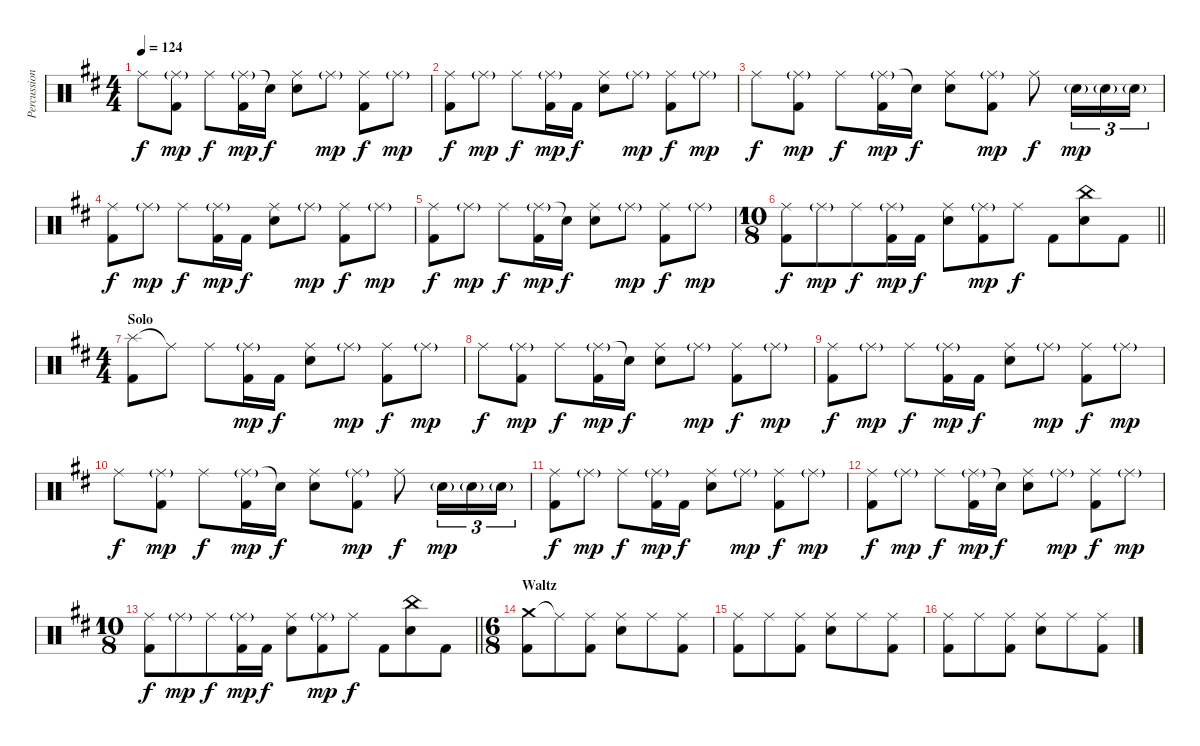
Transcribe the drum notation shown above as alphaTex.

\track ("Percussion" "Percussion") {instrument percussion}
\staff {score}
\articulation defaults
\ts (4 4)
\tempo 124
\clef neutral
\ks bminor "Ride (middle)".8{dy f}
("Ride (middle)"{g} "Kick (hit) 2").8{dy mp} "Ride (middle)".8{dy f} ("Ride (middle)"{g} "Kick (hit) 2").16{dy mp} "Snare (hit)"{t}.16{dy f} ("Ride (middle)" "Electric Snare (hit)").8 "Ride (middle)"{g}.8{dy mp} ("Ride (middle)" "Kick (hit) 2").8{dy f} "Ride (middle)"{g}.8{dy mp} |
("Ride (middle)" "Kick (hit) 2").8{dy f} "Ride (middle)"{g}.8{dy mp} "Ride (middle)".8{dy f} ("Ride (middle)"{g} "Kick (hit) 2").16{dy mp} "Kick (hit) 2".16{dy f} ("Ride (middle)" "Electric Snare (hit)").8 "Ride (middle)"{g}.8{dy mp} ("Ride (middle)" "Kick (hit) 2").8{dy f} "Ride (middle)"{g}.8{dy mp} |
"Ride (middle)".8{dy f} ("Ride (middle)"{g} "Kick (hit) 2").8{dy mp} "Ride (middle)".8{dy f} ("Ride (middle)"{g} "Kick (hit) 2").16{dy mp} "Snare (hit)"{t}.16{dy f} ("Ride (middle)" "Electric Snare (hit)").8 ("Ride (middle)"{g} "Kick (hit) 2").8{dy mp} "Ride (middle)".8{dy f} "Electric Snare (hit)"{g}.16{tu (3 2) dy mp} "Electric Snare (hit)"{g}.16{tu (3 2)} "Electric Snare (hit)"{g}.16{tu (3 2)} |
("Ride (middle)" "Kick (hit) 2").8{dy f} "Ride (middle)"{g}.8{dy mp} "Ride (middle)".8{dy f} ("Ride (middle)"{g} "Kick (hit) 2").16{dy mp} "Kick (hit) 2".16{dy f} ("Ride (middle)" "Electric Snare (hit)").8 "Ride (middle)"{g}.8{dy mp} ("Ride (middle)" "Kick (hit) 2").8{dy f} "Ride (middle)"{g}.8{dy mp} |
("Ride (middle)" "Kick (hit) 2").8{dy f} "Ride (middle)"{g}.8{dy mp} "Ride (middle)".8{dy f} ("Ride (middle)"{g} "Kick (hit) 2").16{dy mp} "Snare (hit)"{t}.16{dy f} ("Ride (middle)" "Electric Snare (hit)").8 "Ride (middle)"{g}.8{dy mp} ("Ride (middle)" "Kick (hit) 2").8{dy f} "Ride (middle)"{g}.8{dy mp} |
\ts (10 8)
\barLineRight lightlight
("Ride (middle)" "Kick (hit) 2").8{dy f} "Ride (middle)"{g}.8{dy mp} "Ride (middle)".8{dy f} ("Ride (middle)"{g} "Kick (hit) 2").16{dy mp} "Kick (hit) 2".16{dy f} ("Ride (middle)" "Electric Snare (hit)").8 ("Ride (middle)"{g} "Kick (hit) 2").8{dy mp} "Ride (middle)".8{dy f} "Kick (hit) 2".8 ("China (hit)" "Electric Snare (hit)").8 "Kick (hit) 2".8 |
\ts (4 4)
\section ("" "Solo")
("Splash (hit)" "Kick (hit) 2").8 "Ride (middle)"{t}.8 "Ride (middle)".8 ("Ride (middle)"{g} "Kick (hit) 2").16{dy mp} "Kick (hit) 2".16{dy f} ("Ride (middle)" "Electric Snare (hit)").8 "Ride (middle)"{g}.8{dy mp} ("Ride (middle)" "Kick (hit) 2").8{dy f} "Ride (middle)"{g}.8{dy mp} |
"Ride (middle)".8{dy f} ("Ride (middle)"{g} "Kick (hit) 2").8{dy mp} "Ride (middle)".8{dy f} ("Ride (middle)"{g} "Kick (hit) 2").16{dy mp} "Snare (hit)"{t}.16{dy f} ("Ride (middle)" "Electric Snare (hit)").8 "Ride (middle)"{g}.8{dy mp} ("Ride (middle)" "Kick (hit) 2").8{dy f} "Ride (middle)"{g}.8{dy mp} |
("Ride (middle)" "Kick (hit) 2").8{dy f} "Ride (middle)"{g}.8{dy mp} "Ride (middle)".8{dy f} ("Ride (middle)"{g} "Kick (hit) 2").16{dy mp} "Kick (hit) 2".16{dy f} ("Ride (middle)" "Electric Snare (hit)").8 "Ride (middle)"{g}.8{dy mp} ("Ride (middle)" "Kick (hit) 2").8{dy f} "Ride (middle)"{g}.8{dy mp} |
"Ride (middle)".8{dy f} ("Ride (middle)"{g} "Kick (hit) 2").8{dy mp} "Ride (middle)".8{dy f} ("Ride (middle)"{g} "Kick (hit) 2").16{dy mp} "Snare (hit)"{t}.16{dy f} ("Ride (middle)" "Electric Snare (hit)").8 ("Ride (middle)"{g} "Kick (hit) 2").8{dy mp} "Ride (middle)".8{dy f} "Electric Snare (hit)"{g}.16{tu (3 2) dy mp} "Electric Snare (hit)"{g}.16{tu (3 2)} "Electric Snare (hit)"{g}.16{tu (3 2)} |
("Ride (middle)" "Kick (hit) 2").8{dy f} "Ride (middle)"{g}.8{dy mp} "Ride (middle)".8{dy f} ("Ride (middle)"{g} "Kick (hit) 2").16{dy mp} "Kick (hit) 2".16{dy f} ("Ride (middle)" "Electric Snare (hit)").8 "Ride (middle)"{g}.8{dy mp} ("Ride (middle)" "Kick (hit) 2").8{dy f} "Ride (middle)"{g}.8{dy mp} |
("Ride (middle)" "Kick (hit) 2").8{dy f} "Ride (middle)"{g}.8{dy mp} "Ride (middle)".8{dy f} ("Ride (middle)"{g} "Kick (hit) 2").16{dy mp} "Snare (hit)"{t}.16{dy f} ("Ride (middle)" "Electric Snare (hit)").8 "Ride (middle)"{g}.8{dy mp} ("Ride (middle)" "Kick (hit) 2").8{dy f} "Ride (middle)"{g}.8{dy mp} |
\ts (10 8)
\barLineRight lightlight
("Ride (middle)" "Kick (hit) 2").8{dy f} "Ride (middle)"{g}.8{dy mp} "Ride (middle)".8{dy f} ("Ride (middle)"{g} "Kick (hit) 2").16{dy mp} "Kick (hit) 2".16{dy f} ("Ride (middle)" "Electric Snare (hit)").8 ("Ride (middle)"{g} "Kick (hit) 2").8{dy mp} "Ride (middle)".8{dy f} "Kick (hit) 2".8 ("China (hit)" "Electric Snare (hit)").8 "Kick (hit) 2".8 |
\ts (6 8)
\section ("" "Waltz ")
("Crash medium (hit)" "Kick (hit) 2").8 "Ride (middle)"{t}.8 ("Ride (middle)" "Kick (hit) 2").8 ("Ride (middle)" "Electric Snare (hit)").8 "Ride (middle)".8 ("Ride (middle)" "Kick (hit) 2").8 |
("Ride (middle)" "Kick (hit) 2").8 "Ride (middle)".8 ("Ride (middle)" "Kick (hit) 2").8 ("Ride (middle)" "Electric Snare (hit)").8 "Ride (middle)".8 ("Ride (middle)" "Kick (hit) 2").8 |
("Ride (middle)" "Kick (hit) 2").8 "Ride (middle)".8 ("Ride (middle)" "Kick (hit) 2").8 ("Ride (middle)" "Electric Snare (hit)").8 "Ride (middle)".8 ("Ride (middle)" "Kick (hit) 2").8
